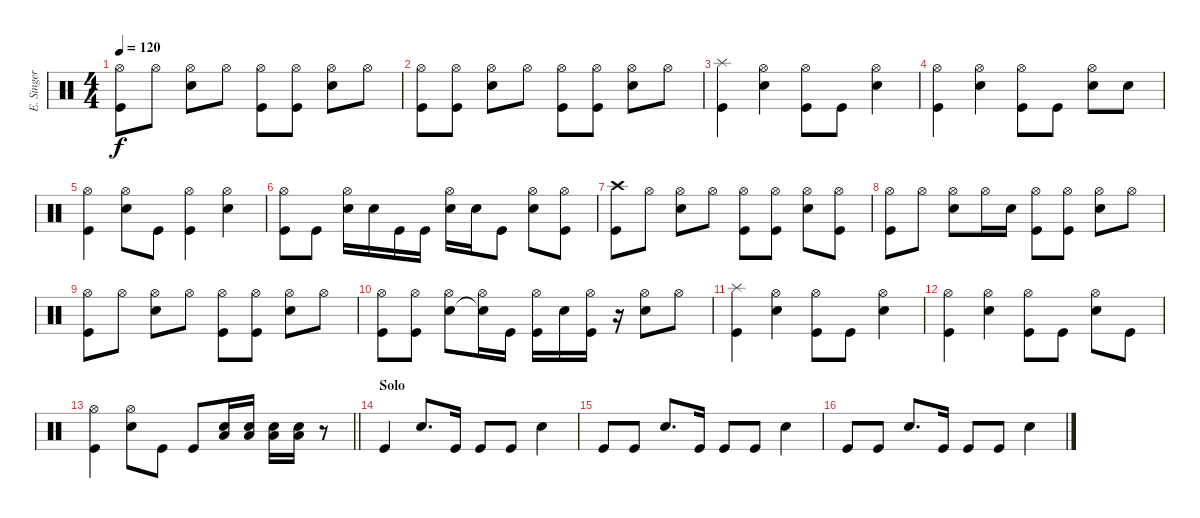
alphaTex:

\track ("E. Singer - Drums" "E. Singer ") {instrument percussion}
\staff {score}
\articulation defaults
\ts (4 4)
\tempo 120
\clef neutral
\ks c
("Kick (hit)" "Hi-Hat (open)").8{dy f} "Hi-Hat (open)".8 ("Snare (hit) 2" "Hi-Hat (open)").8 "Hi-Hat (open)".8 ("Kick (hit)" "Hi-Hat (open)").8 ("Kick (hit)" "Hi-Hat (open)").8 ("Snare (hit) 2" "Hi-Hat (open)").8 "Hi-Hat (open)".8 |
("Kick (hit)" "Hi-Hat (open)").8 ("Kick (hit)" "Hi-Hat (open)").8 ("Snare (hit) 2" "Hi-Hat (open)").8 "Hi-Hat (open)".8 ("Kick (hit)" "Hi-Hat (open)").8 ("Kick (hit)" "Hi-Hat (open)").8 ("Snare (hit) 2" "Hi-Hat (open)").8 "Hi-Hat (open)".8 |
("Kick (hit)" "Splash (hit)").4 ("Snare (hit) 2" "Hi-Hat (open)").4 ("Kick (hit)" "Hi-Hat (open)").8 "Kick (hit)".8 ("Snare (hit) 2" "Hi-Hat (open)").4 |
("Kick (hit)" "Hi-Hat (open)").4 ("Snare (hit) 2" "Hi-Hat (open)").4 ("Kick (hit)" "Hi-Hat (open)").8 "Kick (hit)".8 ("Snare (hit) 2" "Hi-Hat (open)").8 "Snare (hit) 2".8 |
("Kick (hit)" "Hi-Hat (open)").4 ("Snare (hit) 2" "Hi-Hat (open)").8 "Kick (hit)".8 ("Kick (hit)" "Hi-Hat (open)").4 ("Snare (hit) 2" "Hi-Hat (open)").4 |
("Kick (hit)" "Hi-Hat (open)").8 "Kick (hit)".8 ("Snare (hit) 2" "Hi-Hat (open)").16 "Snare (hit) 2".16 "Kick (hit)".16 "Kick (hit)".16 ("Snare (hit) 2" "Hi-Hat (open)").16 "Snare (hit) 2".16 "Kick (hit)".8 ("Snare (hit) 2" "Hi-Hat (open)").8 ("Kick (hit)" "Hi-Hat (open)").8 |
("Kick (hit)" "Crash high (hit)").8 "Hi-Hat (open)".8 ("Snare (hit) 2" "Hi-Hat (open)").8 "Hi-Hat (open)".8 ("Kick (hit)" "Hi-Hat (open)").8 ("Kick (hit)" "Hi-Hat (open)").8 ("Snare (hit) 2" "Hi-Hat (open)").8 ("Kick (hit)" "Hi-Hat (open)").8 |
("Kick (hit)" "Hi-Hat (open)").8 "Hi-Hat (open)".8 ("Snare (hit) 2" "Hi-Hat (open)").8 "Hi-Hat (open)".16 "Snare (hit) 2".16 ("Kick (hit)" "Hi-Hat (open)").8 ("Kick (hit)" "Hi-Hat (open)").8 ("Snare (hit) 2" "Hi-Hat (open)").8 "Hi-Hat (open)".8 |
("Kick (hit)" "Hi-Hat (open)").8 "Hi-Hat (open)".8 ("Snare (hit) 2" "Hi-Hat (open)").8 "Hi-Hat (open)".8 ("Kick (hit)" "Hi-Hat (open)").8 ("Kick (hit)" "Hi-Hat (open)").8 ("Snare (hit) 2" "Hi-Hat (open)").8 "Hi-Hat (open)".8 |
("Kick (hit)" "Hi-Hat (open)").8 ("Kick (hit)" "Hi-Hat (open)").8 ("Snare (hit) 2" "Hi-Hat (open)").8 ("Snare (hit)"{t} "Hi-Hat (open)").16 "Kick (hit)".16 ("Kick (hit)" "Hi-Hat (open)").16 "Snare (hit) 2".16 ("Kick (hit)" "Hi-Hat (open)").16 r.16 ("Snare (hit) 2" "Hi-Hat (open)").8 "Hi-Hat (open)".8 |
("Kick (hit)" "Splash (hit)").4 ("Snare (hit) 2" "Hi-Hat (open)").4 ("Kick (hit)" "Hi-Hat (open)").8 "Kick (hit)".8 ("Snare (hit) 2" "Hi-Hat (open)").4 |
("Kick (hit)" "Hi-Hat (open)").4 ("Snare (hit) 2" "Hi-Hat (open)").4 ("Kick (hit)" "Hi-Hat (open)").8 "Kick (hit)".8 ("Snare (hit) 2" "Hi-Hat (open)").8 "Kick (hit)".8 |
\barLineRight lightlight
("Kick (hit)" "Hi-Hat (open)").4 ("Snare (hit) 2" "Hi-Hat (open)").8 "Kick (hit)".8 "Kick (hit)".8 ("Snare (hit) 2" "Low Floor Tom (hit)").16 ("Snare (hit) 2" "Low Floor Tom (hit)").16 ("Snare (hit) 2" "Low Floor Tom (hit)").16 ("Snare (hit) 2" "Low Floor Tom (hit)").16 r.8 |
\section ("" "Solo")
"Kick (hit)".4 "Snare (hit) 2".8{d} "Kick (hit)".16 "Kick (hit)".8 "Kick (hit)".8 "Snare (hit) 2".4 |
"Kick (hit)".8 "Kick (hit)".8 "Snare (hit) 2".8{d} "Kick (hit)".16 "Kick (hit)".8 "Kick (hit)".8 "Snare (hit) 2".4 |
"Kick (hit)".8 "Kick (hit)".8 "Snare (hit) 2".8{d} "Kick (hit)".16 "Kick (hit)".8 "Kick (hit)".8 "Snare (hit) 2".4
